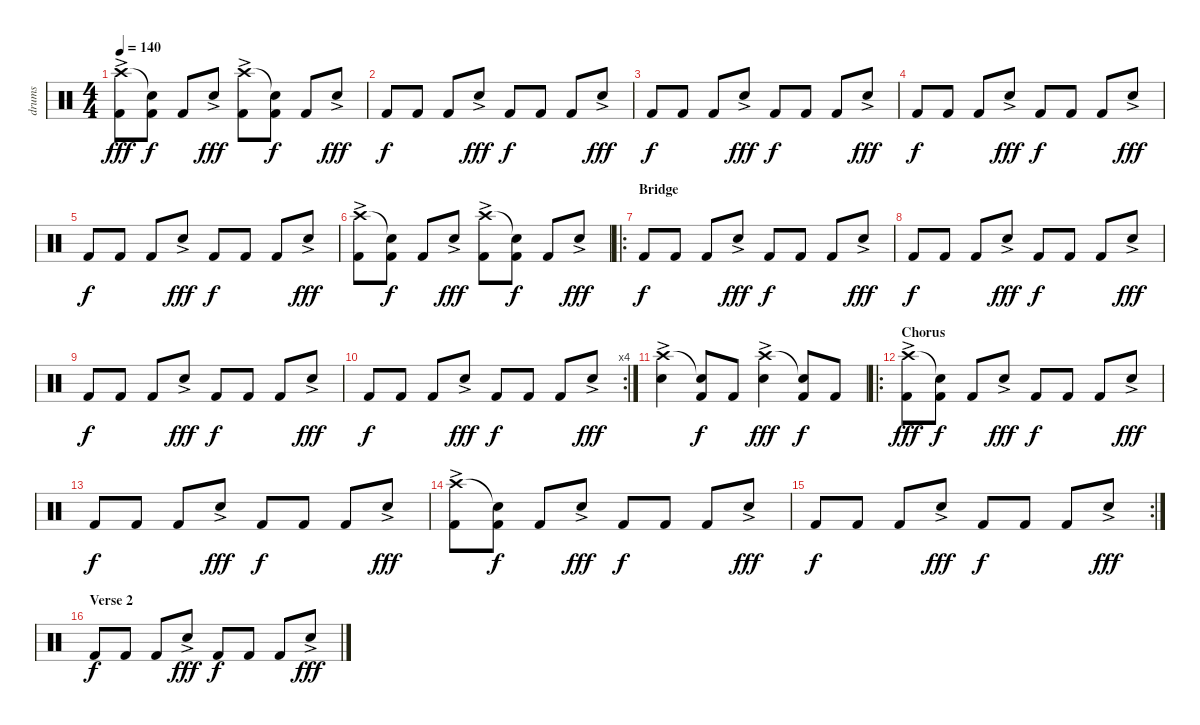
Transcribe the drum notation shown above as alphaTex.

\track ("drums" "drums") {instrument percussion}
\staff {score}
\articulation defaults
\ts (4 4)
\tempo 140
\clef neutral
\ks c
("Crash high (hit)"{ac} "Kick (hit) 2"{ac}).8{dy fff} ("Snare (hit)"{t} "Kick (hit) 2").8{dy f} "Kick (hit) 2".8 "Snare (hit) 2"{ac}.8{dy fff} ("Crash high (hit)"{ac} "Kick (hit) 2"{ac}).8 ("Snare (hit)"{t} "Kick (hit) 2").8{dy f} "Kick (hit) 2".8 "Snare (hit) 2"{ac}.8{dy fff} |
"Kick (hit) 2".8{dy f} "Kick (hit) 2".8 "Kick (hit) 2".8 "Snare (hit) 2"{ac}.8{dy fff} "Kick (hit) 2".8{dy f} "Kick (hit) 2".8 "Kick (hit) 2".8 "Snare (hit) 2"{ac}.8{dy fff} |
"Kick (hit) 2".8{dy f} "Kick (hit) 2".8 "Kick (hit) 2".8 "Snare (hit) 2"{ac}.8{dy fff} "Kick (hit) 2".8{dy f} "Kick (hit) 2".8 "Kick (hit) 2".8 "Snare (hit) 2"{ac}.8{dy fff} |
"Kick (hit) 2".8{dy f} "Kick (hit) 2".8 "Kick (hit) 2".8 "Snare (hit) 2"{ac}.8{dy fff} "Kick (hit) 2".8{dy f} "Kick (hit) 2".8 "Kick (hit) 2".8 "Snare (hit) 2"{ac}.8{dy fff} |
"Kick (hit) 2".8{dy f} "Kick (hit) 2".8 "Kick (hit) 2".8 "Snare (hit) 2"{ac}.8{dy fff} "Kick (hit) 2".8{dy f} "Kick (hit) 2".8 "Kick (hit) 2".8 "Snare (hit) 2"{ac}.8{dy fff} |
("Crash high (hit)"{ac} "Kick (hit) 2"{ac}).8 ("Snare (hit)"{t} "Kick (hit) 2").8{dy f} "Kick (hit) 2".8 "Snare (hit) 2"{ac}.8{dy fff} ("Crash high (hit)"{ac} "Kick (hit) 2"{ac}).8 ("Snare (hit)"{t} "Kick (hit) 2").8{dy f} "Kick (hit) 2".8 "Snare (hit) 2"{ac}.8{dy fff} |
\ro
\section ("" "Bridge")
"Kick (hit) 2".8{dy f} "Kick (hit) 2".8 "Kick (hit) 2".8 "Snare (hit) 2"{ac}.8{dy fff} "Kick (hit) 2".8{dy f} "Kick (hit) 2".8 "Kick (hit) 2".8 "Snare (hit) 2"{ac}.8{dy fff} |
"Kick (hit) 2".8{dy f} "Kick (hit) 2".8 "Kick (hit) 2".8 "Snare (hit) 2"{ac}.8{dy fff} "Kick (hit) 2".8{dy f} "Kick (hit) 2".8 "Kick (hit) 2".8 "Snare (hit) 2"{ac}.8{dy fff} |
"Kick (hit) 2".8{dy f} "Kick (hit) 2".8 "Kick (hit) 2".8 "Snare (hit) 2"{ac}.8{dy fff} "Kick (hit) 2".8{dy f} "Kick (hit) 2".8 "Kick (hit) 2".8 "Snare (hit) 2"{ac}.8{dy fff} |
\rc 4 "Kick (hit) 2".8{dy f} "Kick (hit) 2".8 "Kick (hit) 2".8 "Snare (hit) 2"{ac}.8{dy fff} "Kick (hit) 2".8{dy f} "Kick (hit) 2".8 "Kick (hit) 2".8 "Snare (hit) 2"{ac}.8{dy fff}
|
("Crash high (hit)"{ac} "Snare (hit) 2"{ac}).4 ("Snare (hit)"{t} "Kick (hit) 2").8{dy f} "Kick (hit) 2".8 ("Crash high (hit)"{ac} "Snare (hit) 2"{ac}).4{dy fff} ("Snare (hit)"{t} "Kick (hit) 2").8{dy f} "Kick (hit) 2".8 |
\ro
\section ("" "Chorus")
("Crash high (hit)"{ac} "Kick (hit) 2"{ac}).8{dy fff} ("Snare (hit)"{t} "Kick (hit) 2").8{dy f} "Kick (hit) 2".8 "Snare (hit) 2"{ac}.8{dy fff} "Kick (hit) 2".8{dy f} "Kick (hit) 2".8 "Kick (hit) 2".8 "Snare (hit) 2"{ac}.8{dy fff} |
"Kick (hit) 2".8{dy f} "Kick (hit) 2".8 "Kick (hit) 2".8 "Snare (hit) 2"{ac}.8{dy fff} "Kick (hit) 2".8{dy f} "Kick (hit) 2".8 "Kick (hit) 2".8 "Snare (hit) 2"{ac}.8{dy fff} |
("Crash high (hit)"{ac} "Kick (hit) 2"{ac}).8 ("Snare (hit)"{t} "Kick (hit) 2").8{dy f} "Kick (hit) 2".8 "Snare (hit) 2"{ac}.8{dy fff} "Kick (hit) 2".8{dy f} "Kick (hit) 2".8 "Kick (hit) 2".8 "Snare (hit) 2"{ac}.8{dy fff} |
\rc 2 "Kick (hit) 2".8{dy f} "Kick (hit) 2".8 "Kick (hit) 2".8 "Snare (hit) 2"{ac}.8{dy fff} "Kick (hit) 2".8{dy f} "Kick (hit) 2".8 "Kick (hit) 2".8 "Snare (hit) 2"{ac}.8{dy fff}
|
\section ("" "Verse 2")
"Kick (hit) 2".8{dy f} "Kick (hit) 2".8 "Kick (hit) 2".8 "Snare (hit) 2"{ac}.8{dy fff} "Kick (hit) 2".8{dy f} "Kick (hit) 2".8 "Kick (hit) 2".8 "Snare (hit) 2"{ac}.8{dy fff}
